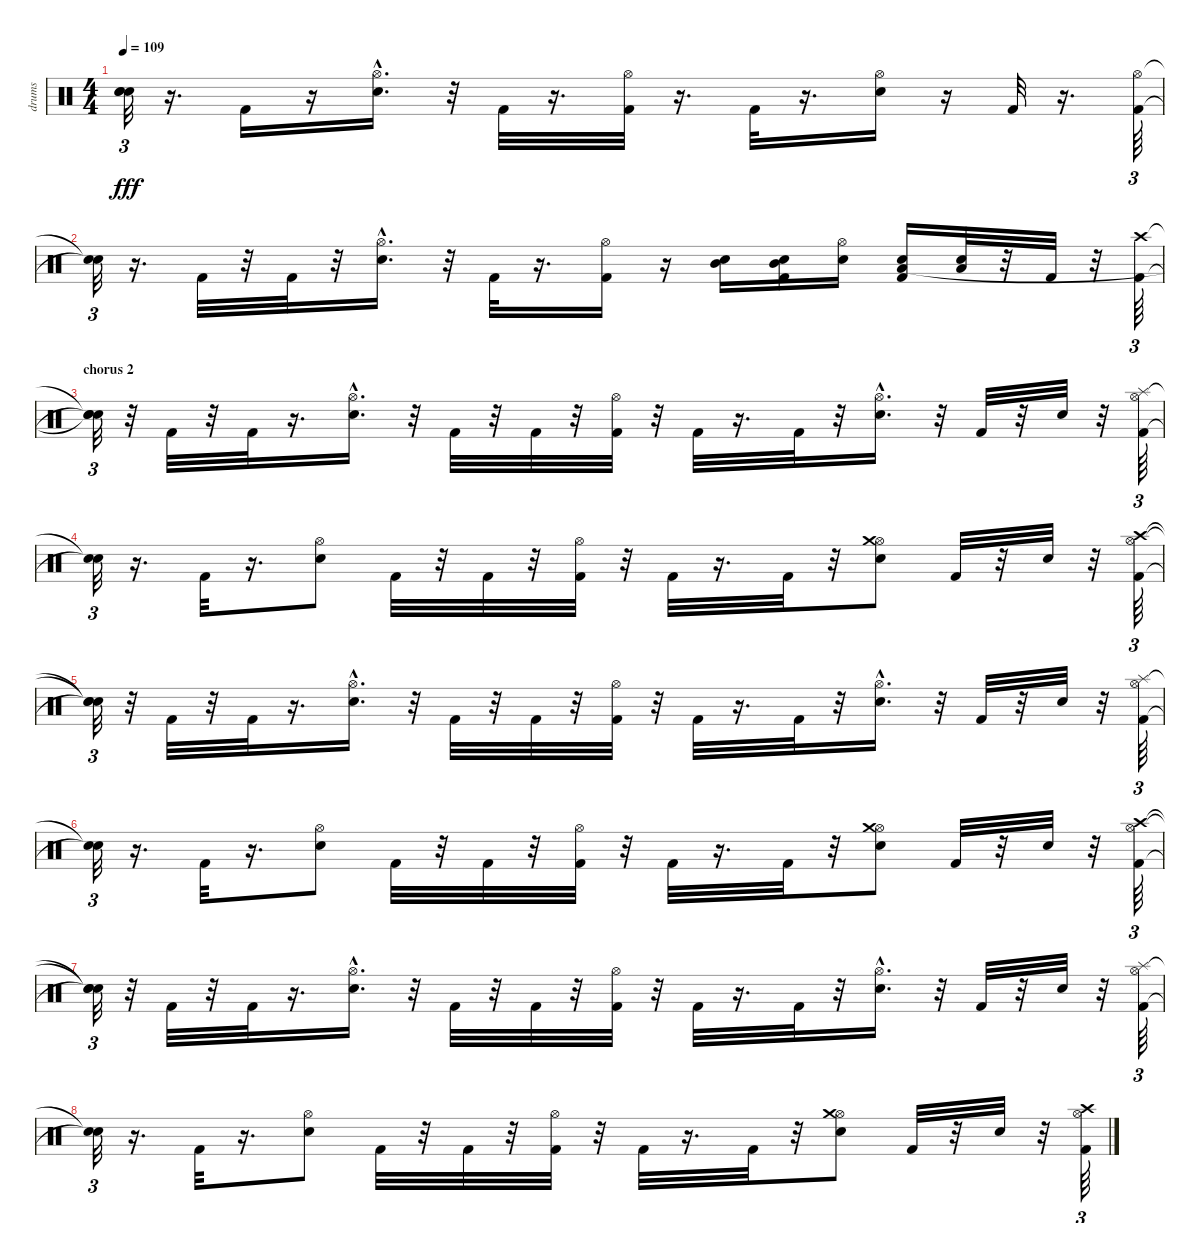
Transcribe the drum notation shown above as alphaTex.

\track ("drums" "drums") {instrument percussion}
\staff {score}
\articulation defaults
\ts (4 4)
\tempo 109
\clef neutral
\ks c
("Snare (hit)"{t} "Snare (hit)"{t} "Snare (hit)"{t}).32{tu (3 2) dy fff} r.16{d} "Kick (hit) 2".16 r.16 ("Snare (hit) 2"{hac} "Hi-Hat (open)").16{d} r.32 "Kick (hit) 2".32 r.16{d} ("Kick (hit) 2" "Hi-Hat (open)").32 r.16{d} "Kick (hit) 2".32 r.16{d} ("Snare (hit) 2" "Hi-Hat (open)").16 r.16 "Kick (hit) 2".32 r.16{d} ("Kick (hit) 2" "Hi-Hat (open)").64{tu (3 2)} |
("Snare (hit)"{t} "Snare (hit)"{t}).32{tu (3 2)} r.16{d} "Kick (hit) 2".32 r.32 "Kick (hit) 2".32 r.32 ("Snare (hit) 2"{hac} "Hi-Hat (open)").16{d} r.32 "Kick (hit) 2".32 r.16{d} ("Kick (hit) 2" "Hi-Hat (open)").16 r.16 ("Snare (hit) 2" "Mid Tom (hit)").16 ("Kick (hit) 2" "Snare (hit) 2" "Mid Tom (hit)").16 ("Snare (hit) 2" "Hi-Hat (open)").16 ("Kick (hit) 2" "Snare (hit) 2" "Low Tom (hit)").16 ("Snare (hit) 2" "Low Floor Tom (hit)").32 r.32 "Kick (hit) 2".32 r.32 ("Kick (hit) 2" "Crash high (hit)").64{tu (3 2)} |
\section ("" "chorus 2")
("Snare (hit)"{t} "Snare (hit)"{t} "Snare (hit)"{t}).32{tu (3 2)} r.32 "Kick (hit) 2".32 r.32 "Kick (hit) 2".32 r.16{d} ("Snare (hit) 2"{hac} "Hi-Hat (open)").16{d} r.32 "Kick (hit) 2".32 r.32 "Kick (hit) 2".32 r.32 ("Kick (hit) 2" "Hi-Hat (open)").32 r.32 "Kick (hit) 2".32 r.16{d} "Kick (hit) 2".32 r.32 ("Snare (hit) 2"{hac} "Hi-Hat (open)").16{d} r.32 "Kick (hit) 2".32 r.32 "Snare (hit) 2".32 r.32 ("Kick (hit) 2" "Hi-Hat (open)" "Splash (hit)").64{tu (3 2)} |
("Snare (hit)"{t} "Snare (hit)"{t}).32{tu (3 2)} r.16{d} "Kick (hit) 2".32 r.16{d} ("Snare (hit) 2" "Hi-Hat (open)").8 "Kick (hit) 2".32 r.32 "Kick (hit) 2".32 r.32 ("Kick (hit) 2" "Hi-Hat (open)").32 r.32 "Kick (hit) 2".32 r.16{d} "Kick (hit) 2".32 r.32 ("Snare (hit) 2" "Hi-Hat (open)" "Crash medium (hit)").8 "Kick (hit) 2".32 r.32 "Snare (hit) 2".32 r.32 ("Kick (hit) 2" "Hi-Hat (open)" "Crash high (hit)").64{tu (3 2)} |
("Snare (hit)"{t} "Snare (hit)"{t} "Snare (hit)"{t}).32{tu (3 2)} r.32 "Kick (hit) 2".32 r.32 "Kick (hit) 2".32 r.16{d} ("Snare (hit) 2"{hac} "Hi-Hat (open)").16{d} r.32 "Kick (hit) 2".32 r.32 "Kick (hit) 2".32 r.32 ("Kick (hit) 2" "Hi-Hat (open)").32 r.32 "Kick (hit) 2".32 r.16{d} "Kick (hit) 2".32 r.32 ("Snare (hit) 2"{hac} "Hi-Hat (open)").16{d} r.32 "Kick (hit) 2".32 r.32 "Snare (hit) 2".32 r.32 ("Kick (hit) 2" "Hi-Hat (open)" "Splash (hit)").64{tu (3 2)} |
("Snare (hit)"{t} "Snare (hit)"{t}).32{tu (3 2)} r.16{d} "Kick (hit) 2".32 r.16{d} ("Snare (hit) 2" "Hi-Hat (open)").8 "Kick (hit) 2".32 r.32 "Kick (hit) 2".32 r.32 ("Kick (hit) 2" "Hi-Hat (open)").32 r.32 "Kick (hit) 2".32 r.16{d} "Kick (hit) 2".32 r.32 ("Snare (hit) 2" "Hi-Hat (open)" "Crash medium (hit)").8 "Kick (hit) 2".32 r.32 "Snare (hit) 2".32 r.32 ("Kick (hit) 2" "Hi-Hat (open)" "Crash high (hit)").64{tu (3 2)} |
("Snare (hit)"{t} "Snare (hit)"{t} "Snare (hit)"{t}).32{tu (3 2)} r.32 "Kick (hit) 2".32 r.32 "Kick (hit) 2".32 r.16{d} ("Snare (hit) 2"{hac} "Hi-Hat (open)").16{d} r.32 "Kick (hit) 2".32 r.32 "Kick (hit) 2".32 r.32 ("Kick (hit) 2" "Hi-Hat (open)").32 r.32 "Kick (hit) 2".32 r.16{d} "Kick (hit) 2".32 r.32 ("Snare (hit) 2"{hac} "Hi-Hat (open)").16{d} r.32 "Kick (hit) 2".32 r.32 "Snare (hit) 2".32 r.32 ("Kick (hit) 2" "Hi-Hat (open)" "Splash (hit)").64{tu (3 2)} |
("Snare (hit)"{t} "Snare (hit)"{t}).32{tu (3 2)} r.16{d} "Kick (hit) 2".32 r.16{d} ("Snare (hit) 2" "Hi-Hat (open)").8 "Kick (hit) 2".32 r.32 "Kick (hit) 2".32 r.32 ("Kick (hit) 2" "Hi-Hat (open)").32 r.32 "Kick (hit) 2".32 r.16{d} "Kick (hit) 2".32 r.32 ("Snare (hit) 2" "Hi-Hat (open)" "Crash medium (hit)").8 "Kick (hit) 2".32 r.32 "Snare (hit) 2".32 r.32 ("Kick (hit) 2" "Hi-Hat (open)" "Crash high (hit)").64{tu (3 2)}
